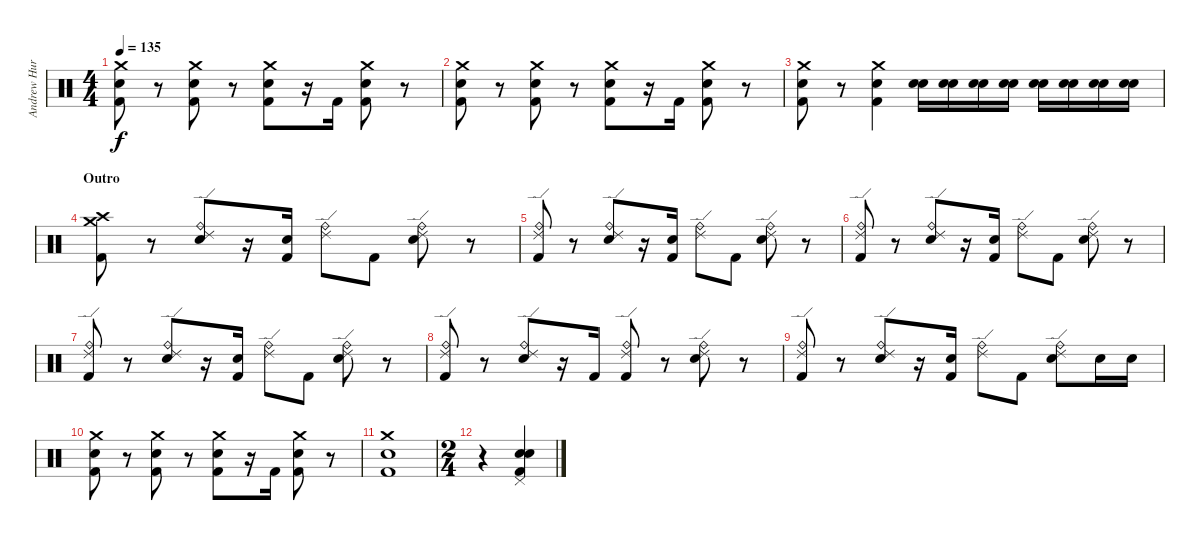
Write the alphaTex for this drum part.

\track ("Andrew Hurley (Drums)" "Andrew Hur") {instrument percussion}
\staff {score}
\articulation defaults
\ts (4 4)
\tempo 135
\clef neutral
\ks c
("Crash medium (hit)" "Electric Snare (hit)" "Kick (hit) 2").8{dy f} r.8 ("Crash medium (hit)" "Electric Snare (hit)" "Kick (hit) 2").8 r.8 ("Crash medium (hit)" "Electric Snare (hit)" "Kick (hit) 2").8 r.16 "Kick (hit) 2".16 ("Crash medium (hit)" "Electric Snare (hit)" "Kick (hit) 2").8 r.8 |
("Crash medium (hit)" "Electric Snare (hit)" "Kick (hit) 2").8 r.8 ("Crash medium (hit)" "Electric Snare (hit)" "Kick (hit) 2").8 r.8 ("Crash medium (hit)" "Electric Snare (hit)" "Kick (hit) 2").8 r.16 "Kick (hit) 2".16 ("Crash medium (hit)" "Electric Snare (hit)" "Kick (hit) 2").8 r.8 |
("Crash medium (hit)" "Electric Snare (hit)" "Kick (hit) 2").8 r.8 ("Crash medium (hit)" "Electric Snare (hit)" "Kick (hit) 2").4 ("Electric Snare (hit)" "Snare (hit) 2").16 ("Electric Snare (hit)" "Snare (hit) 2").16 ("Electric Snare (hit)" "Snare (hit) 2").16 ("Electric Snare (hit)" "Snare (hit) 2").16 ("Electric Snare (hit)" "Snare (hit) 2").16 ("Electric Snare (hit)" "Snare (hit) 2").16 ("Electric Snare (hit)" "Snare (hit) 2").16 ("Electric Snare (hit)" "Snare (hit) 2").16 |
\section ("" "Outro")
("Crash medium (hit)" "Crash high (hit)" "Kick (hit) 2").8 r.8 ("Ride (bell)" "Ride (edge) 2" "Electric Snare (hit)").8 r.16 ("Electric Snare (hit)" "Kick (hit) 2").16 ("Ride (bell)" "Ride (edge) 2").8 "Kick (hit) 2".8 ("Ride (bell)" "Ride (edge) 2" "Electric Snare (hit)").8 r.8 |
("Ride (bell)" "Ride (edge) 2" "Kick (hit) 2").8 r.8 ("Ride (bell)" "Ride (edge) 2" "Electric Snare (hit)").8 r.16 ("Electric Snare (hit)" "Kick (hit) 2").16 ("Ride (bell)" "Ride (edge) 2").8 "Kick (hit) 2".8 ("Ride (bell)" "Ride (edge) 2" "Electric Snare (hit)").8 r.8 |
("Ride (bell)" "Ride (edge) 2" "Kick (hit) 2").8 r.8 ("Ride (bell)" "Ride (edge) 2" "Electric Snare (hit)").8 r.16 ("Electric Snare (hit)" "Kick (hit) 2").16 ("Ride (bell)" "Ride (edge) 2").8 "Kick (hit) 2".8 ("Ride (bell)" "Ride (edge) 2" "Electric Snare (hit)").8 r.8 |
("Ride (bell)" "Ride (edge) 2" "Kick (hit) 2").8 r.8 ("Ride (bell)" "Ride (edge) 2" "Electric Snare (hit)").8 r.16 ("Electric Snare (hit)" "Kick (hit) 2").16 ("Ride (bell)" "Ride (edge) 2").8 "Kick (hit) 2".8 ("Ride (bell)" "Ride (edge) 2" "Electric Snare (hit)").8 r.8 |
("Ride (bell)" "Ride (edge) 2" "Kick (hit) 2").8 r.8 ("Ride (bell)" "Ride (edge) 2" "Electric Snare (hit)").8 r.16 "Kick (hit) 2".16 ("Ride (bell)" "Ride (edge) 2" "Kick (hit) 2").8 r.8 ("Ride (bell)" "Ride (edge) 2" "Electric Snare (hit)").8 r.8 |
("Ride (bell)" "Ride (edge) 2" "Kick (hit) 2").8 r.8 ("Ride (bell)" "Ride (edge) 2" "Electric Snare (hit)").8 r.16 ("Electric Snare (hit)" "Kick (hit) 2").16 ("Ride (bell)" "Ride (edge) 2").8 "Kick (hit) 2".8 ("Ride (bell)" "Ride (edge) 2" "Electric Snare (hit)").8 "Electric Snare (hit)".16 "Electric Snare (hit)".16 |
("Crash medium (hit)" "Electric Snare (hit)" "Kick (hit) 2").8 r.8 ("Crash medium (hit)" "Electric Snare (hit)" "Kick (hit) 2").8 r.8 ("Crash medium (hit)" "Electric Snare (hit)" "Kick (hit) 2").8 r.16 "Kick (hit) 2".16 ("Crash medium (hit)" "Electric Snare (hit)" "Kick (hit) 2").8 r.8 |
("Crash medium (hit)" "Electric Snare (hit)" "Kick (hit) 2").1 |
\ts (2 4)
r.4{volume 16} ("Pedal Hi-Hat (hit)" "Snare (hit) 2" "Electric Snare (hit)" "Kick (hit) 2").4
